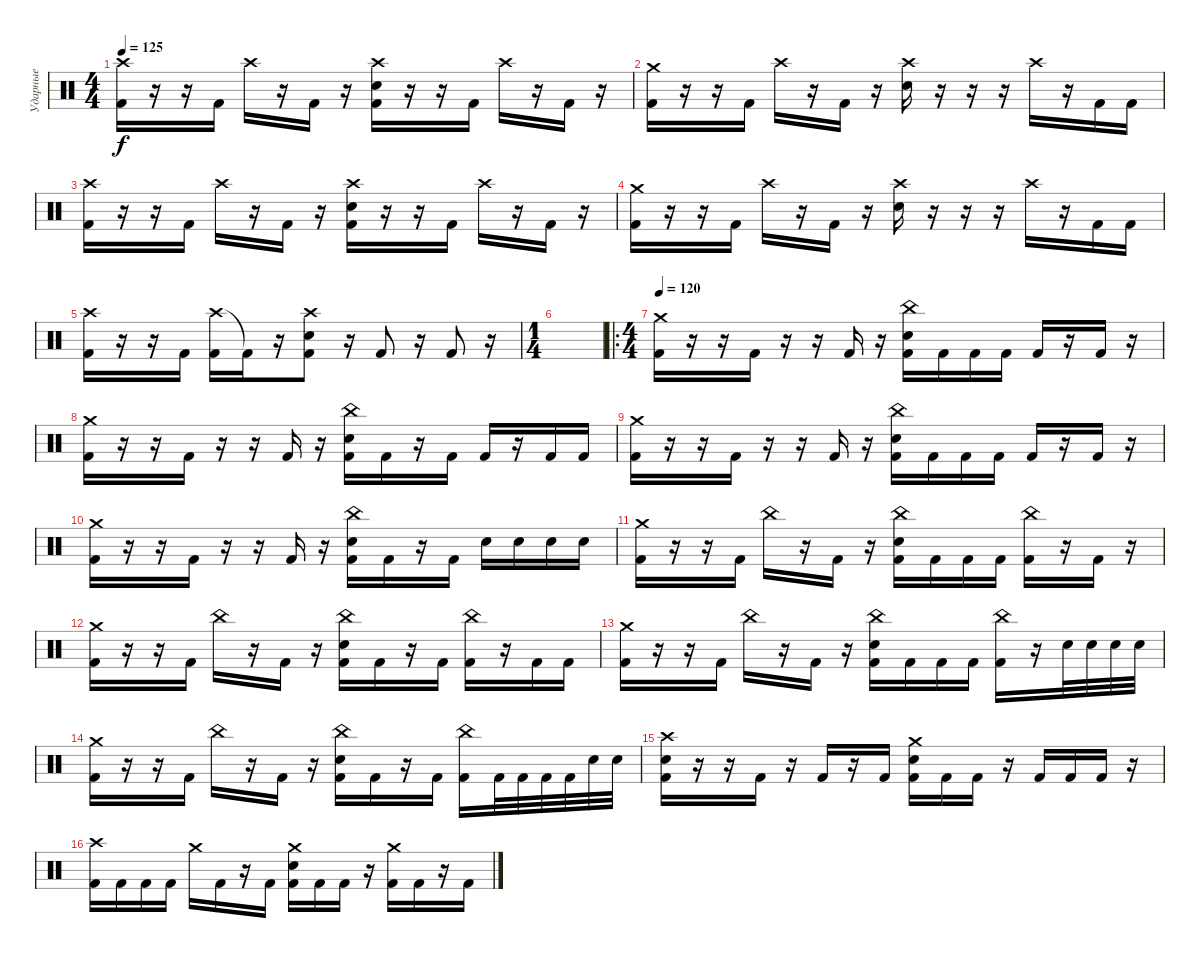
\track ("Ударные" "Ударные") {instrument percussion}
\staff {score}
\articulation defaults
\ts (4 4)
\tempo 125
\clef neutral
\ks c
("Crash high (hit)" "Kick (hit) 2").16{dy f} r.16 r.16 "Kick (hit) 2".16 "Crash high (hit)".16 r.16 "Kick (hit) 2".16 r.16 ("Crash high (hit)" "Electric Snare (hit)" "Kick (hit) 2").16 r.16 r.16 "Kick (hit) 2".16 "Crash high (hit)".16 r.16 "Kick (hit) 2".16 r.16 |
("Crash medium (hit)" "Kick (hit) 2").16 r.16 r.16 "Kick (hit) 2".16 "Crash high (hit)".16 r.16 "Kick (hit) 2".16 r.16 ("Crash high (hit)" "Electric Snare (hit)").16 r.16 r.16 r.16 "Crash high (hit)".16 r.16 "Kick (hit) 2".16 "Kick (hit) 2".16 |
("Crash high (hit)" "Kick (hit) 2").16 r.16 r.16 "Kick (hit) 2".16 "Crash high (hit)".16 r.16 "Kick (hit) 2".16 r.16 ("Crash high (hit)" "Electric Snare (hit)" "Kick (hit) 2").16 r.16 r.16 "Kick (hit) 2".16 "Crash high (hit)".16 r.16 "Kick (hit) 2".16 r.16 |
("Crash medium (hit)" "Kick (hit) 2").16 r.16 r.16 "Kick (hit) 2".16 "Crash high (hit)".16 r.16 "Kick (hit) 2".16 r.16 ("Crash high (hit)" "Electric Snare (hit)").16 r.16 r.16 r.16 "Crash high (hit)".16 r.16 "Kick (hit) 2".16 "Kick (hit) 2".16 |
("Crash high (hit)" "Kick (hit) 2").16 r.16 r.16 "Kick (hit) 2".16 ("Crash high (hit)" "Kick (hit) 2").16 "Kick (hit) 2"{t}.16 r.16 ("Crash high (hit)" "Electric Snare (hit)" "Kick (hit) 2").8 r.16 "Kick (hit) 2".8 r.16 "Kick (hit) 2".8 r.16 |
\ts (1 4)
|
\ro
\ts (4 4)
\tempo 120
("Crash medium (hit)" "Kick (hit) 2").16 r.16 r.16 "Kick (hit) 2".16 r.16 r.16 "Kick (hit) 2".16 r.16 ("China (hit)" "Electric Snare (hit)" "Kick (hit) 2").16 "Kick (hit) 2".16 "Kick (hit) 2".16 "Kick (hit) 2".16 "Kick (hit) 2".16 r.16 "Kick (hit) 2".16 r.16 |
("Crash medium (hit)" "Kick (hit) 2").16 r.16 r.16 "Kick (hit) 2".16 r.16 r.16 "Kick (hit) 2".16 r.16 ("China (hit)" "Electric Snare (hit)" "Kick (hit) 2").16 "Kick (hit) 2".16 r.16 "Kick (hit) 2".16 "Kick (hit) 2".16 r.16 "Kick (hit) 2".16 "Kick (hit) 2".16 |
("Crash medium (hit)" "Kick (hit) 2").16 r.16 r.16 "Kick (hit) 2".16 r.16 r.16 "Kick (hit) 2".16 r.16 ("China (hit)" "Electric Snare (hit)" "Kick (hit) 2").16 "Kick (hit) 2".16 "Kick (hit) 2".16 "Kick (hit) 2".16 "Kick (hit) 2".16 r.16 "Kick (hit) 2".16 r.16 |
("Crash medium (hit)" "Kick (hit) 2").16 r.16 r.16 "Kick (hit) 2".16 r.16 r.16 "Kick (hit) 2".16 r.16 ("China (hit)" "Electric Snare (hit)" "Kick (hit) 2").16 "Kick (hit) 2".16 r.16 "Kick (hit) 2".16 "Electric Snare (hit)".16 "Electric Snare (hit)".16 "Electric Snare (hit)".16 "Electric Snare (hit)".16 |
("Crash medium (hit)" "Kick (hit) 2").16 r.16 r.16 "Kick (hit) 2".16 "China (hit)".16 r.16 "Kick (hit) 2".16 r.16 ("China (hit)" "Electric Snare (hit)" "Kick (hit) 2").16 "Kick (hit) 2".16 "Kick (hit) 2".16 "Kick (hit) 2".16 ("China (hit)" "Kick (hit) 2").16 r.16 "Kick (hit) 2".16 r.16 |
("Crash medium (hit)" "Kick (hit) 2").16 r.16 r.16 "Kick (hit) 2".16 "China (hit)".16 r.16 "Kick (hit) 2".16 r.16 ("China (hit)" "Electric Snare (hit)" "Kick (hit) 2").16 "Kick (hit) 2".16 r.16 "Kick (hit) 2".16 ("China (hit)" "Kick (hit) 2").16 r.16 "Kick (hit) 2".16 "Kick (hit) 2".16 |
("Crash medium (hit)" "Kick (hit) 2").16 r.16 r.16 "Kick (hit) 2".16 "China (hit)".16 r.16 "Kick (hit) 2".16 r.16 ("China (hit)" "Electric Snare (hit)" "Kick (hit) 2").16 "Kick (hit) 2".16 "Kick (hit) 2".16 "Kick (hit) 2".16 ("China (hit)" "Kick (hit) 2").16 r.16 "Electric Snare (hit)".32 "Electric Snare (hit)".32 "Electric Snare (hit)".32 "Electric Snare (hit)".32 |
("Crash medium (hit)" "Kick (hit) 2").16 r.16 r.16 "Kick (hit) 2".16 "China (hit)".16 r.16 "Kick (hit) 2".16 r.16 ("China (hit)" "Electric Snare (hit)" "Kick (hit) 2").16 "Kick (hit) 2".16 r.16 "Kick (hit) 2".16 ("China (hit)" "Kick (hit) 2").16 "Kick (hit) 2".32 "Kick (hit) 2".32 "Kick (hit) 2".32 "Kick (hit) 2".32 "Electric Snare (hit)".32 "Electric Snare (hit)".32 |
("Crash high (hit)" "Electric Snare (hit)" "Kick (hit) 2").16 r.16 r.16 "Kick (hit) 2".16 r.16 "Kick (hit) 2".16 r.16 "Kick (hit) 2".16 ("Crash medium (hit)" "Electric Snare (hit)" "Kick (hit) 2").16 "Kick (hit) 2".16 "Kick (hit) 2".16 r.16 "Kick (hit) 2".16 "Kick (hit) 2".16 "Kick (hit) 2".16 r.16 |
("Crash high (hit)" "Kick (hit) 2").16 "Kick (hit) 2".16 "Kick (hit) 2".16 "Kick (hit) 2".16 "Crash medium (hit)".16 "Kick (hit) 2".16 r.16 "Kick (hit) 2".16 ("Crash medium (hit)" "Electric Snare (hit)" "Kick (hit) 2").16 "Kick (hit) 2".16 "Kick (hit) 2".16 r.16 ("Crash medium (hit)" "Kick (hit) 2").16 "Kick (hit) 2".16 r.16 "Kick (hit) 2".16
